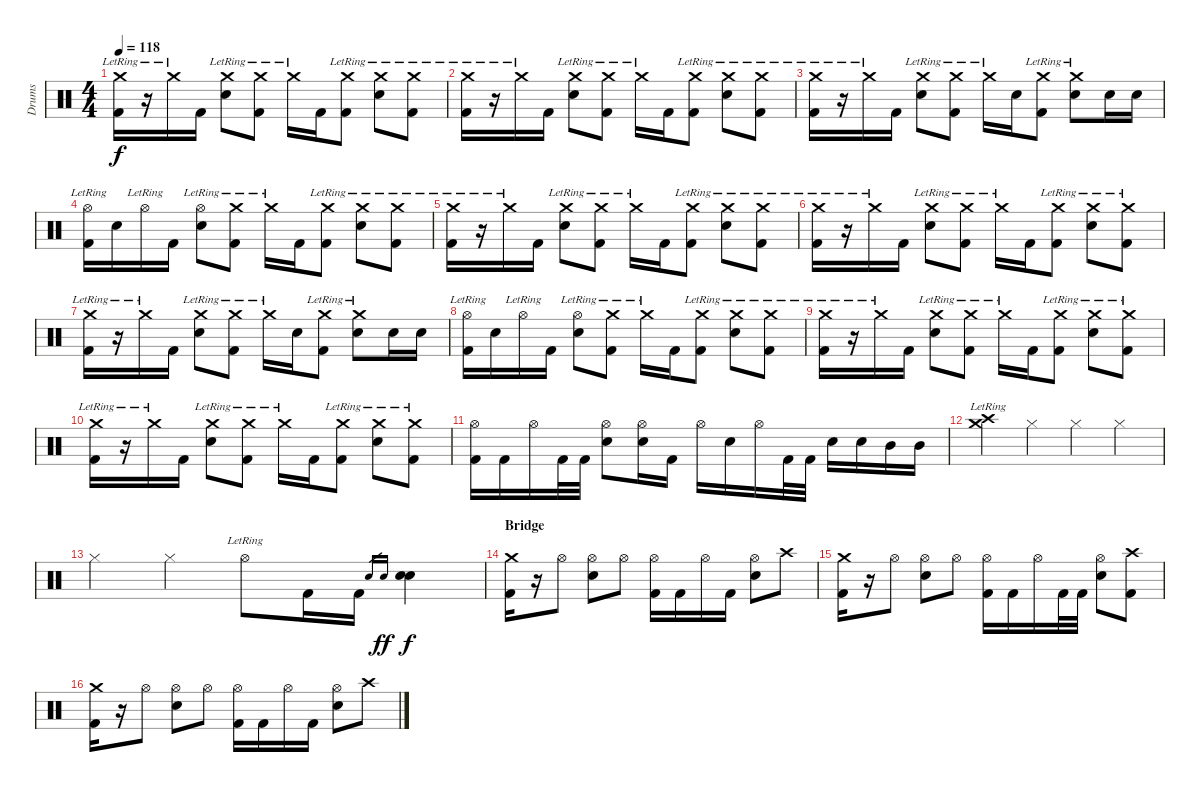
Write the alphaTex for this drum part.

\track ("Drums" "Drums") {instrument percussion}
\staff {score}
\articulation defaults
\ts (4 4)
\tempo 118
\clef neutral
\ks c
("Crash medium (hit)"{lr} "Kick (hit) 2").16{dy f} r.16 "Crash medium (hit)"{lr}.16 "Kick (hit) 2".16 ("Crash medium (hit)"{lr} "Electric Snare (hit)").8 ("Crash medium (hit)"{lr} "Kick (hit) 2").8 "Crash medium (hit)"{lr}.16 "Kick (hit) 2".16 ("Crash medium (hit)"{lr} "Kick (hit) 2").8 ("Crash medium (hit)"{lr} "Electric Snare (hit)").8 ("Crash medium (hit)"{lr} "Kick (hit) 2").8 |
("Crash medium (hit)"{lr} "Kick (hit) 2").16 r.16 "Crash medium (hit)"{lr}.16 "Kick (hit) 2".16 ("Crash medium (hit)"{lr} "Electric Snare (hit)").8 ("Crash medium (hit)"{lr} "Kick (hit) 2").8 "Crash medium (hit)"{lr}.16 "Kick (hit) 2".16 ("Crash medium (hit)"{lr} "Kick (hit) 2").8 ("Crash medium (hit)"{lr} "Electric Snare (hit)").8 ("Crash medium (hit)"{lr} "Kick (hit) 2").8 |
("Crash medium (hit)"{lr} "Kick (hit) 2").16 r.16 "Crash medium (hit)"{lr}.16 "Kick (hit) 2".16 ("Crash medium (hit)"{lr} "Electric Snare (hit)").8 ("Crash medium (hit)"{lr} "Kick (hit) 2").8 "Crash medium (hit)"{lr}.16 "Electric Snare (hit)".16 ("Crash medium (hit)"{lr} "Kick (hit) 2").8 ("Crash medium (hit)"{lr} "Electric Snare (hit)").8 "Electric Snare (hit)".16 "Electric Snare (hit)".16 |
("Hi-Hat (open)"{lr} "Kick (hit) 2").16 "Electric Snare (hit)".16 "Hi-Hat (open)"{lr}.16 "Kick (hit) 2".16 ("Hi-Hat (open)"{lr} "Electric Snare (hit)").8 ("Crash medium (hit)"{lr} "Kick (hit) 2").8 "Crash medium (hit)"{lr}.16 "Kick (hit) 2".16 ("Crash medium (hit)"{lr} "Kick (hit) 2").8 ("Crash medium (hit)"{lr} "Electric Snare (hit)").8 ("Crash medium (hit)"{lr} "Kick (hit) 2").8 |
("Crash medium (hit)"{lr} "Kick (hit) 2").16 r.16 "Crash medium (hit)"{lr}.16 "Kick (hit) 2".16 ("Crash medium (hit)"{lr} "Electric Snare (hit)").8 ("Crash medium (hit)"{lr} "Kick (hit) 2").8 "Crash medium (hit)"{lr}.16 "Kick (hit) 2".16 ("Crash medium (hit)"{lr} "Kick (hit) 2").8 ("Crash medium (hit)"{lr} "Electric Snare (hit)").8 ("Crash medium (hit)"{lr} "Kick (hit) 2").8 |
("Crash medium (hit)"{lr} "Kick (hit) 2").16 r.16 "Crash medium (hit)"{lr}.16 "Kick (hit) 2".16 ("Crash medium (hit)"{lr} "Electric Snare (hit)").8 ("Crash medium (hit)"{lr} "Kick (hit) 2").8 "Crash medium (hit)"{lr}.16 "Kick (hit) 2".16 ("Crash medium (hit)"{lr} "Kick (hit) 2").8 ("Crash medium (hit)"{lr} "Electric Snare (hit)").8 ("Crash medium (hit)"{lr} "Kick (hit) 2").8 |
("Crash medium (hit)"{lr} "Kick (hit) 2").16 r.16 "Crash medium (hit)"{lr}.16 "Kick (hit) 2".16 ("Crash medium (hit)"{lr} "Electric Snare (hit)").8 ("Crash medium (hit)"{lr} "Kick (hit) 2").8 "Crash medium (hit)"{lr}.16 "Electric Snare (hit)".16 ("Crash medium (hit)"{lr} "Kick (hit) 2").8 ("Crash medium (hit)"{lr} "Electric Snare (hit)").8 "Electric Snare (hit)".16 "Electric Snare (hit)".16 |
("Hi-Hat (open)"{lr} "Kick (hit) 2").16 "Electric Snare (hit)".16 "Hi-Hat (open)"{lr}.16 "Kick (hit) 2".16 ("Hi-Hat (open)"{lr} "Electric Snare (hit)").8 ("Crash medium (hit)"{lr} "Kick (hit) 2").8 "Crash medium (hit)"{lr}.16 "Kick (hit) 2".16 ("Crash medium (hit)"{lr} "Kick (hit) 2").8 ("Crash medium (hit)"{lr} "Electric Snare (hit)").8 ("Crash medium (hit)"{lr} "Kick (hit) 2").8 |
("Crash medium (hit)"{lr} "Kick (hit) 2").16 r.16 "Crash medium (hit)"{lr}.16 "Kick (hit) 2".16 ("Crash medium (hit)"{lr} "Electric Snare (hit)").8 ("Crash medium (hit)"{lr} "Kick (hit) 2").8 "Crash medium (hit)"{lr}.16 "Kick (hit) 2".16 ("Crash medium (hit)"{lr} "Kick (hit) 2").8 ("Crash medium (hit)"{lr} "Electric Snare (hit)").8 ("Crash medium (hit)"{lr} "Kick (hit) 2").8 |
("Crash medium (hit)"{lr} "Kick (hit) 2").16 r.16 "Crash medium (hit)"{lr}.16 "Kick (hit) 2".16 ("Crash medium (hit)"{lr} "Electric Snare (hit)").8 ("Crash medium (hit)"{lr} "Kick (hit) 2").8 "Crash medium (hit)"{lr}.16 "Kick (hit) 2".16 ("Crash medium (hit)"{lr} "Kick (hit) 2").8 ("Crash medium (hit)"{lr} "Electric Snare (hit)").8 ("Crash medium (hit)"{lr} "Kick (hit) 2").8 |
("Hi-Hat (open)" "Kick (hit) 2").16 "Kick (hit) 2".16 "Hi-Hat (open)".16 "Kick (hit) 2".32 "Kick (hit) 2".32 ("Hi-Hat (open)" "Electric Snare (hit)").8 ("Hi-Hat (open)" "Electric Snare (hit)").16 "Kick (hit) 2".16 "Hi-Hat (open)".16 "Electric Snare (hit)".16 "Hi-Hat (open)".16 "Kick (hit) 2".32 "Kick (hit) 2".32 "Electric Snare (hit)".16 "Electric Snare (hit)".16 "Mid Tom (hit)".16 "Mid Tom (hit)".16 |
("Crash medium (hit)"{lr} "Crash high (hit)"{lr}).4 "Hi-Hat (closed)".4 "Hi-Hat (closed)".4 "Hi-Hat (closed)".4 |
"Hi-Hat (closed)".4 "Hi-Hat (closed)".4 "Hi-Hat (open)"{lr}.8 "Kick (hit) 2".16 "Kick (hit) 2".16 "Electric Snare (hit)".16{gr} "Electric Snare (hit)".16{gr dy ff} ("Electric Snare (hit)" "Electric Snare (hit)").4{dy f} |
\section ("" "Bridge")
("Crash medium (hit)" "Kick (hit) 2").16 r.16 "Hi-Hat (open)".8 ("Hi-Hat (open)" "Electric Snare (hit)").8 "Hi-Hat (open)".8 ("Hi-Hat (open)" "Kick (hit) 2").16 "Kick (hit) 2".16 "Hi-Hat (open)".16 "Kick (hit) 2".16 ("Hi-Hat (open)" "Electric Snare (hit)").8 "Crash high (hit)".8 |
("Crash medium (hit)" "Kick (hit) 2").16 r.16 "Hi-Hat (open)".8 ("Hi-Hat (open)" "Electric Snare (hit)").8 "Hi-Hat (open)".8 ("Hi-Hat (open)" "Kick (hit) 2").16 "Kick (hit) 2".16 "Hi-Hat (open)".16 "Kick (hit) 2".32 "Kick (hit) 2".32 ("Hi-Hat (open)" "Electric Snare (hit)").8 ("Crash high (hit)" "Kick (hit) 2").8 |
("Crash medium (hit)" "Kick (hit) 2").16 r.16 "Hi-Hat (open)".8 ("Hi-Hat (open)" "Electric Snare (hit)").8 "Hi-Hat (open)".8 ("Hi-Hat (open)" "Kick (hit) 2").16 "Kick (hit) 2".16 "Hi-Hat (open)".16 "Kick (hit) 2".16 ("Hi-Hat (open)" "Electric Snare (hit)").8 "Crash high (hit)".8
